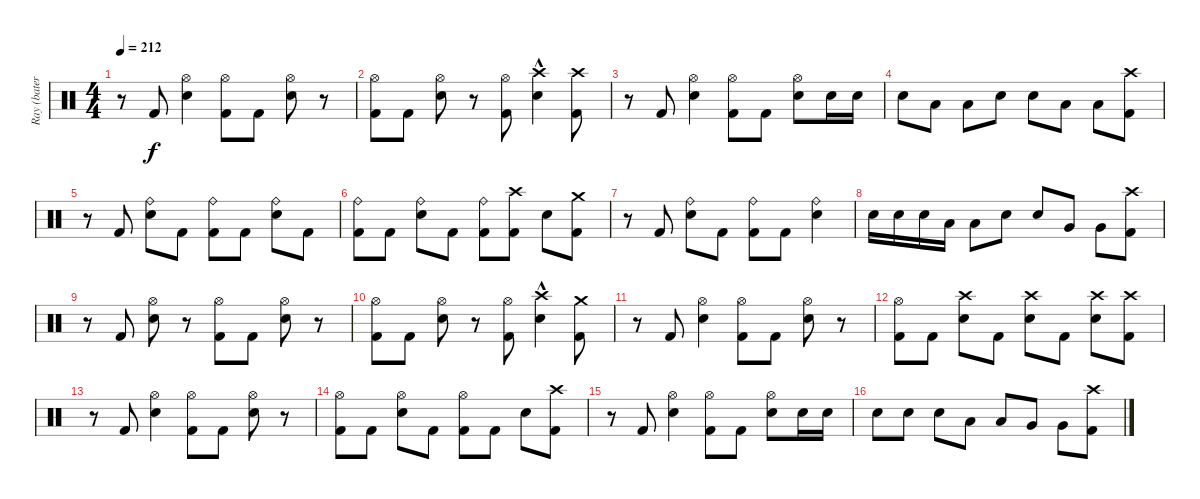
\track ("Ray (batería)" "Ray (bater") {instrument percussion}
\staff {score}
\articulation defaults
\ts (4 4)
\tempo 212
\clef neutral
\ks c
r.8{dy f} "Kick (hit) 2".8 ("Hi-Hat (open)" "Snare (hit) 2").4 ("Hi-Hat (open)" "Kick (hit) 2").8 "Kick (hit) 2".8 ("Hi-Hat (open)" "Snare (hit) 2").8 r.8 |
("Hi-Hat (open)" "Kick (hit) 2").8 "Kick (hit) 2".8 ("Hi-Hat (open)" "Snare (hit) 2").8 r.8 ("Hi-Hat (open)" "Kick (hit) 2").8 ("Crash high (hit)" "Snare (hit) 2"{hac}).4 ("Crash high (hit)" "Kick (hit) 2").8 |
r.8 "Kick (hit) 2".8 ("Hi-Hat (open)" "Snare (hit) 2").4 ("Hi-Hat (open)" "Kick (hit) 2").8 "Kick (hit) 2".8 ("Hi-Hat (open)" "Snare (hit) 2").8 "Snare (hit) 2".16 "Snare (hit) 2".16 |
"Snare (hit) 2".8 "Low Tom (hit)".8 "Low Tom (hit)".8 "Snare (hit) 2".8 "Snare (hit) 2".8 "Low Floor Tom (hit)".8 "Low Floor Tom (hit)".8 ("Crash high (hit)" "Kick (hit) 2").8 |
r.8 "Kick (hit) 2".8 ("Ride (bell)" "Snare (hit) 2").8 "Kick (hit) 2".8 ("Ride (bell)" "Kick (hit) 2").8 "Kick (hit) 2".8 ("Ride (bell)" "Snare (hit) 2").8 "Kick (hit) 2".8 |
("Ride (bell)" "Kick (hit) 2").8 "Kick (hit) 2".8 ("Ride (bell)" "Snare (hit) 2").8 "Kick (hit) 2".8 ("Ride (bell)" "Kick (hit) 2").8 ("Crash high (hit)" "Kick (hit) 2").8 "Snare (hit) 2".8 ("Crash medium (hit)" "Kick (hit) 2").8 |
r.8 "Kick (hit) 2".8 ("Ride (bell)" "Snare (hit) 2").8 "Kick (hit) 2".8 ("Ride (bell)" "Kick (hit) 2").8 "Kick (hit) 2".8 ("Ride (bell)" "Snare (hit) 2").4 |
"Snare (hit) 2".16 "Snare (hit) 2".16 "Snare (hit) 2".16 "Low Tom (hit)".16 "Low Tom (hit)".8 "Snare (hit) 2".8 "Snare (hit) 2".8 "Very Low Tom (hit)".8 "Very Low Tom (hit)".8 ("Crash high (hit)" "Kick (hit) 2").8 |
r.8 "Kick (hit) 2".8 ("Hi-Hat (open)" "Snare (hit) 2").8 r.8 ("Hi-Hat (open)" "Kick (hit) 2").8 "Kick (hit) 2".8 ("Hi-Hat (open)" "Snare (hit) 2").8 r.8 |
("Hi-Hat (open)" "Kick (hit) 2").8 "Kick (hit) 2".8 ("Hi-Hat (open)" "Snare (hit) 2").8 r.8 ("Hi-Hat (open)" "Kick (hit) 2").8 ("Crash high (hit)" "Snare (hit) 2"{hac}).4 ("Crash medium (hit)" "Kick (hit) 2").8 |
r.8 "Kick (hit) 2".8 ("Hi-Hat (open)" "Snare (hit) 2").4 ("Hi-Hat (open)" "Kick (hit) 2").8 "Kick (hit) 2".8 ("Hi-Hat (open)" "Snare (hit) 2").8 r.8 |
("Hi-Hat (open)" "Kick (hit) 2").8 "Kick (hit) 2".8 ("Crash high (hit)" "Snare (hit) 2").8 "Kick (hit) 2".8 ("Crash high (hit)" "Snare (hit) 2").8 "Kick (hit) 2".8 ("Crash high (hit)" "Snare (hit) 2").8 ("Crash high (hit)" "Kick (hit) 2").8 |
r.8 "Kick (hit) 2".8 ("Hi-Hat (open)" "Snare (hit) 2").4 ("Hi-Hat (open)" "Kick (hit) 2").8 "Kick (hit) 2".8 ("Hi-Hat (open)" "Snare (hit) 2").8 r.8 |
("Hi-Hat (open)" "Kick (hit) 2").8 "Kick (hit) 2".8 ("Hi-Hat (open)" "Snare (hit) 2").8 "Kick (hit) 2".8 ("Hi-Hat (open)" "Kick (hit) 2").8 "Kick (hit) 2".8 "Snare (hit) 2".8 ("Crash high (hit)" "Kick (hit) 2").8 |
r.8 "Kick (hit) 2".8 ("Hi-Hat (open)" "Snare (hit) 2").4 ("Hi-Hat (open)" "Kick (hit) 2").8 "Kick (hit) 2".8 ("Hi-Hat (open)" "Snare (hit) 2").8 "Snare (hit) 2".16 "Snare (hit) 2".16 |
"Snare (hit) 2".8 "Snare (hit) 2".8 "Snare (hit) 2".8 "Low Tom (hit)".8 "Low Tom (hit)".8 "Very Low Tom (hit)".8 "Very Low Tom (hit)".8 ("Crash high (hit)" "Kick (hit) 2").8
